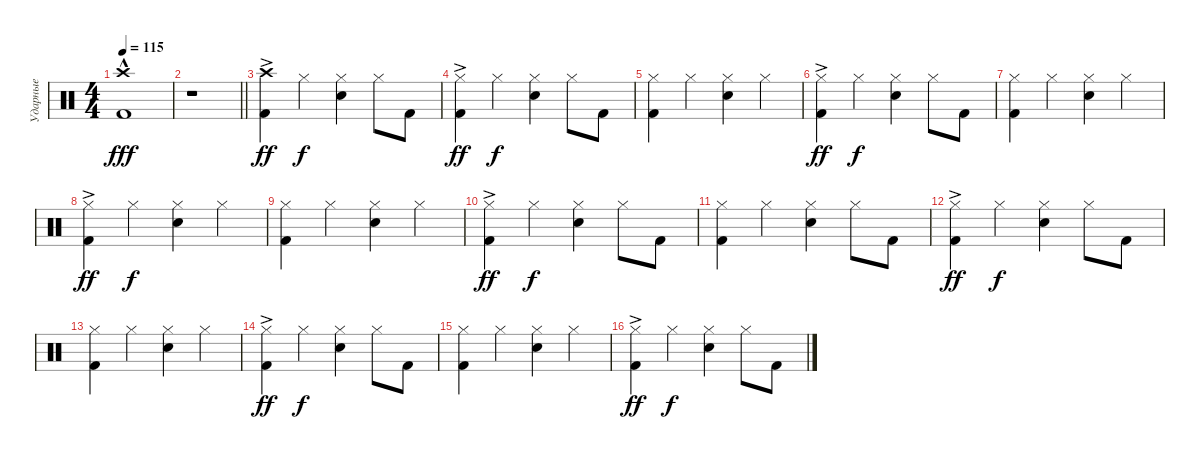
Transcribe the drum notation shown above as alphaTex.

\track ("Ударные" "Ударные") {instrument percussion}
\staff {score}
\articulation defaults
\ts (4 4)
\tempo 115
\clef neutral
\ks c
("Kick (hit) 2" "Crash high (hit)"{hac}).1{dy fff} |
\barLineRight lightlight
r.1 |
("Kick (hit) 2" "Crash high (hit)"{ac}).4{dy ff} "Hi-Hat (closed)".4{dy f} ("Snare (hit) 2" "Hi-Hat (closed)").4 "Hi-Hat (closed)".8 "Kick (hit) 2".8 |
("Kick (hit) 2" "Hi-Hat (closed)"{ac}).4{dy ff} "Hi-Hat (closed)".4{dy f} ("Snare (hit) 2" "Hi-Hat (closed)").4 "Hi-Hat (closed)".8 "Kick (hit) 2".8 |
("Kick (hit) 2" "Hi-Hat (closed)").4 "Hi-Hat (closed)".4 ("Snare (hit) 2" "Hi-Hat (closed)").4 "Hi-Hat (closed)".4 |
("Kick (hit) 2" "Hi-Hat (closed)"{ac}).4{dy ff} "Hi-Hat (closed)".4{dy f} ("Snare (hit) 2" "Hi-Hat (closed)").4 "Hi-Hat (closed)".8 "Kick (hit) 2".8 |
("Kick (hit) 2" "Hi-Hat (closed)").4 "Hi-Hat (closed)".4 ("Snare (hit) 2" "Hi-Hat (closed)").4 "Hi-Hat (closed)".4 |
("Kick (hit) 2" "Hi-Hat (closed)"{ac}).4{dy ff} "Hi-Hat (closed)".4{dy f} ("Snare (hit) 2" "Hi-Hat (closed)").4 "Hi-Hat (closed)".4 |
("Kick (hit) 2" "Hi-Hat (closed)").4 "Hi-Hat (closed)".4 ("Snare (hit) 2" "Hi-Hat (closed)").4 "Hi-Hat (closed)".4 |
("Kick (hit) 2" "Hi-Hat (closed)"{ac}).4{dy ff} "Hi-Hat (closed)".4{dy f} ("Snare (hit) 2" "Hi-Hat (closed)").4 "Hi-Hat (closed)".8 "Kick (hit) 2".8 |
("Kick (hit) 2" "Hi-Hat (closed)").4 "Hi-Hat (closed)".4 ("Snare (hit) 2" "Hi-Hat (closed)").4 "Hi-Hat (closed)".8 "Kick (hit) 2".8 |
("Kick (hit) 2" "Hi-Hat (closed)"{ac}).4{dy ff} "Hi-Hat (closed)".4{dy f} ("Snare (hit) 2" "Hi-Hat (closed)").4 "Hi-Hat (closed)".8 "Kick (hit) 2".8 |
("Kick (hit) 2" "Hi-Hat (closed)").4 "Hi-Hat (closed)".4 ("Snare (hit) 2" "Hi-Hat (closed)").4 "Hi-Hat (closed)".4 |
("Kick (hit) 2" "Hi-Hat (closed)"{ac}).4{dy ff} "Hi-Hat (closed)".4{dy f} ("Snare (hit) 2" "Hi-Hat (closed)").4 "Hi-Hat (closed)".8 "Kick (hit) 2".8 |
("Kick (hit) 2" "Hi-Hat (closed)").4 "Hi-Hat (closed)".4 ("Snare (hit) 2" "Hi-Hat (closed)").4 "Hi-Hat (closed)".4 |
("Kick (hit) 2" "Hi-Hat (closed)"{ac}).4{dy ff} "Hi-Hat (closed)".4{dy f} ("Snare (hit) 2" "Hi-Hat (closed)").4 "Hi-Hat (closed)".8 "Kick (hit) 2".8
